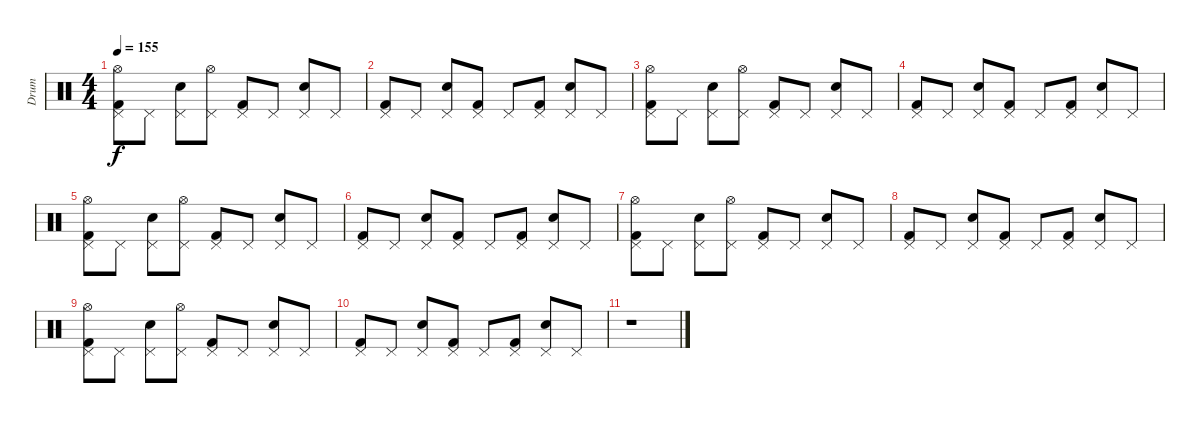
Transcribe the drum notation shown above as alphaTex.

\track ("Drum" "Drum") {instrument percussion}
\staff {score}
\articulation defaults
\ts (4 4)
\tempo 155
\clef neutral
\ks c
("Kick (hit) 2" "Pedal Hi-Hat (hit)" "Hi-Hat (open)").8{dy f} "Pedal Hi-Hat (hit)".8 ("Electric Snare (hit)" "Pedal Hi-Hat (hit)").8 ("Pedal Hi-Hat (hit)" "Hi-Hat (open)").8 ("Kick (hit) 2" "Pedal Hi-Hat (hit)").8 "Pedal Hi-Hat (hit)".8 ("Electric Snare (hit)" "Pedal Hi-Hat (hit)").8 "Pedal Hi-Hat (hit)".8 |
("Kick (hit) 2" "Pedal Hi-Hat (hit)").8 "Pedal Hi-Hat (hit)".8 ("Electric Snare (hit)" "Pedal Hi-Hat (hit)").8 ("Kick (hit) 2" "Pedal Hi-Hat (hit)").8 "Pedal Hi-Hat (hit)".8 ("Kick (hit) 2" "Pedal Hi-Hat (hit)").8 ("Electric Snare (hit)" "Pedal Hi-Hat (hit)").8 "Pedal Hi-Hat (hit)".8 |
("Kick (hit) 2" "Pedal Hi-Hat (hit)" "Hi-Hat (open)").8 "Pedal Hi-Hat (hit)".8 ("Electric Snare (hit)" "Pedal Hi-Hat (hit)").8 ("Pedal Hi-Hat (hit)" "Hi-Hat (open)").8 ("Kick (hit) 2" "Pedal Hi-Hat (hit)").8 "Pedal Hi-Hat (hit)".8 ("Electric Snare (hit)" "Pedal Hi-Hat (hit)").8 "Pedal Hi-Hat (hit)".8 |
("Kick (hit) 2" "Pedal Hi-Hat (hit)").8 "Pedal Hi-Hat (hit)".8 ("Electric Snare (hit)" "Pedal Hi-Hat (hit)").8 ("Kick (hit) 2" "Pedal Hi-Hat (hit)").8 "Pedal Hi-Hat (hit)".8 ("Kick (hit) 2" "Pedal Hi-Hat (hit)").8 ("Electric Snare (hit)" "Pedal Hi-Hat (hit)").8 "Pedal Hi-Hat (hit)".8 |
("Kick (hit) 2" "Pedal Hi-Hat (hit)" "Hi-Hat (open)").8 "Pedal Hi-Hat (hit)".8 ("Electric Snare (hit)" "Pedal Hi-Hat (hit)").8 ("Pedal Hi-Hat (hit)" "Hi-Hat (open)").8 ("Kick (hit) 2" "Pedal Hi-Hat (hit)").8 "Pedal Hi-Hat (hit)".8 ("Electric Snare (hit)" "Pedal Hi-Hat (hit)").8 "Pedal Hi-Hat (hit)".8 |
("Kick (hit) 2" "Pedal Hi-Hat (hit)").8 "Pedal Hi-Hat (hit)".8 ("Electric Snare (hit)" "Pedal Hi-Hat (hit)").8 ("Kick (hit) 2" "Pedal Hi-Hat (hit)").8 "Pedal Hi-Hat (hit)".8 ("Kick (hit) 2" "Pedal Hi-Hat (hit)").8 ("Electric Snare (hit)" "Pedal Hi-Hat (hit)").8 "Pedal Hi-Hat (hit)".8 |
("Kick (hit) 2" "Pedal Hi-Hat (hit)" "Hi-Hat (open)").8 "Pedal Hi-Hat (hit)".8 ("Electric Snare (hit)" "Pedal Hi-Hat (hit)").8 ("Pedal Hi-Hat (hit)" "Hi-Hat (open)").8 ("Kick (hit) 2" "Pedal Hi-Hat (hit)").8 "Pedal Hi-Hat (hit)".8 ("Electric Snare (hit)" "Pedal Hi-Hat (hit)").8 "Pedal Hi-Hat (hit)".8 |
("Kick (hit) 2" "Pedal Hi-Hat (hit)").8 "Pedal Hi-Hat (hit)".8 ("Electric Snare (hit)" "Pedal Hi-Hat (hit)").8 ("Kick (hit) 2" "Pedal Hi-Hat (hit)").8 "Pedal Hi-Hat (hit)".8 ("Kick (hit) 2" "Pedal Hi-Hat (hit)").8 ("Electric Snare (hit)" "Pedal Hi-Hat (hit)").8 "Pedal Hi-Hat (hit)".8 |
("Kick (hit) 2" "Pedal Hi-Hat (hit)" "Hi-Hat (open)").8 "Pedal Hi-Hat (hit)".8 ("Electric Snare (hit)" "Pedal Hi-Hat (hit)").8 ("Pedal Hi-Hat (hit)" "Hi-Hat (open)").8 ("Kick (hit) 2" "Pedal Hi-Hat (hit)").8 "Pedal Hi-Hat (hit)".8 ("Electric Snare (hit)" "Pedal Hi-Hat (hit)").8 "Pedal Hi-Hat (hit)".8 |
("Kick (hit) 2" "Pedal Hi-Hat (hit)").8 "Pedal Hi-Hat (hit)".8 ("Electric Snare (hit)" "Pedal Hi-Hat (hit)").8 ("Kick (hit) 2" "Pedal Hi-Hat (hit)").8 "Pedal Hi-Hat (hit)".8 ("Kick (hit) 2" "Pedal Hi-Hat (hit)").8 ("Electric Snare (hit)" "Pedal Hi-Hat (hit)").8 "Pedal Hi-Hat (hit)".8 |
r.1
